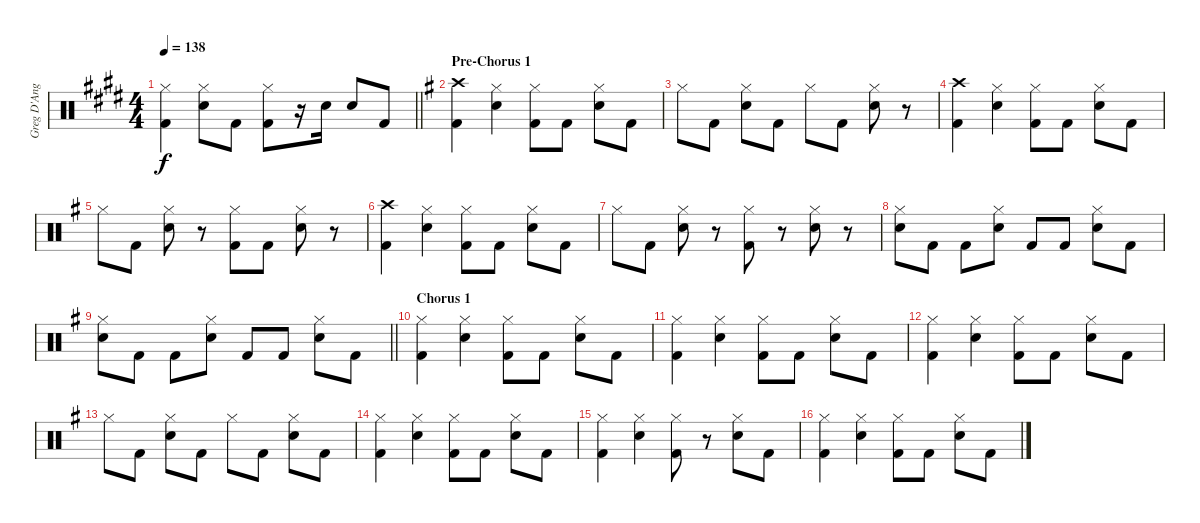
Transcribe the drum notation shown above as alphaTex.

\track ("Greg D'Angelo" "Greg D'Ang") {instrument percussion}
\staff {score}
\articulation defaults
\ts (4 4)
\tempo 138
\clef neutral
\barLineRight lightlight
\ks c#minor
("Hi-Hat (closed)" "Kick (hit) 2").4{dy f} ("Hi-Hat (closed)" "Snare (hit) 2").8 "Kick (hit) 2".8 ("Hi-Hat (closed)" "Kick (hit) 2").8 r.16 "Snare (hit) 2".16 "Snare (hit) 2".8 "Kick (hit) 2".8 |
\section ("" "Pre-Chorus 1")
\ks g
("Crash high (hit)" "Kick (hit) 2").4 ("Hi-Hat (closed)" "Snare (hit) 2").4 ("Hi-Hat (closed)" "Kick (hit) 2").8 "Kick (hit) 2".8 ("Hi-Hat (closed)" "Snare (hit) 2").8 "Kick (hit) 2".8 |
"Hi-Hat (closed)".8 "Kick (hit) 2".8 ("Hi-Hat (closed)" "Snare (hit) 2").8 "Kick (hit) 2".8 "Hi-Hat (closed)".8 "Kick (hit) 2".8 ("Hi-Hat (closed)" "Snare (hit) 2").8 r.8 |
("Crash high (hit)" "Kick (hit) 2").4 ("Hi-Hat (closed)" "Snare (hit) 2").4 ("Hi-Hat (closed)" "Kick (hit) 2").8 "Kick (hit) 2".8 ("Hi-Hat (closed)" "Snare (hit) 2").8 "Kick (hit) 2".8 |
"Hi-Hat (closed)".8 "Kick (hit) 2".8 ("Hi-Hat (closed)" "Snare (hit) 2").8 r.8 ("Hi-Hat (closed)" "Kick (hit) 2").8 "Kick (hit) 2".8 ("Hi-Hat (closed)" "Snare (hit) 2").8 r.8 |
("Crash high (hit)" "Kick (hit) 2").4 ("Hi-Hat (closed)" "Snare (hit) 2").4 ("Hi-Hat (closed)" "Kick (hit) 2").8 "Kick (hit) 2".8 ("Hi-Hat (closed)" "Snare (hit) 2").8 "Kick (hit) 2".8 |
"Hi-Hat (closed)".8 "Kick (hit) 2".8 ("Hi-Hat (closed)" "Snare (hit) 2").8 r.8 ("Hi-Hat (closed)" "Kick (hit) 2").8 r.8 ("Hi-Hat (closed)" "Snare (hit) 2").8 r.8 |
("Hi-Hat (closed)" "Snare (hit) 2").8 "Kick (hit) 2".8 "Kick (hit) 2".8 ("Hi-Hat (closed)" "Snare (hit) 2").8 "Kick (hit) 2".8 "Kick (hit) 2".8 ("Hi-Hat (closed)" "Snare (hit) 2").8 "Kick (hit) 2".8 |
\barLineRight lightlight
("Hi-Hat (closed)" "Snare (hit) 2").8 "Kick (hit) 2".8 "Kick (hit) 2".8 ("Hi-Hat (closed)" "Snare (hit) 2").8 "Kick (hit) 2".8 "Kick (hit) 2".8 ("Hi-Hat (closed)" "Snare (hit) 2").8 "Kick (hit) 2".8 |
\section ("" "Chorus 1")
("Hi-Hat (closed)" "Kick (hit) 2").4 ("Hi-Hat (closed)" "Snare (hit) 2").4 ("Hi-Hat (closed)" "Kick (hit) 2").8 "Kick (hit) 2".8 ("Hi-Hat (closed)" "Snare (hit) 2").8 "Kick (hit) 2".8 |
("Hi-Hat (closed)" "Kick (hit) 2").4 ("Hi-Hat (closed)" "Snare (hit) 2").4 ("Hi-Hat (closed)" "Kick (hit) 2").8 "Kick (hit) 2".8 ("Hi-Hat (closed)" "Snare (hit) 2").8 "Kick (hit) 2".8 |
("Hi-Hat (closed)" "Kick (hit) 2").4 ("Hi-Hat (closed)" "Snare (hit) 2").4 ("Hi-Hat (closed)" "Kick (hit) 2").8 "Kick (hit) 2".8 ("Hi-Hat (closed)" "Snare (hit) 2").8 "Kick (hit) 2".8 |
"Hi-Hat (closed)".8 "Kick (hit) 2".8 ("Hi-Hat (closed)" "Snare (hit) 2").8 "Kick (hit) 2".8 "Hi-Hat (closed)".8 "Kick (hit) 2".8 ("Hi-Hat (closed)" "Snare (hit) 2").8 "Kick (hit) 2".8 |
("Hi-Hat (closed)" "Kick (hit) 2").4 ("Hi-Hat (closed)" "Snare (hit) 2").4 ("Hi-Hat (closed)" "Kick (hit) 2").8 "Kick (hit) 2".8 ("Hi-Hat (closed)" "Snare (hit) 2").8 "Kick (hit) 2".8 |
("Hi-Hat (closed)" "Kick (hit) 2").4 ("Hi-Hat (closed)" "Snare (hit) 2").4 ("Hi-Hat (closed)" "Kick (hit) 2").8 r.8 ("Hi-Hat (closed)" "Snare (hit) 2").8 "Kick (hit) 2".8 |
("Hi-Hat (closed)" "Kick (hit) 2").4 ("Hi-Hat (closed)" "Snare (hit) 2").4 ("Hi-Hat (closed)" "Kick (hit) 2").8 "Kick (hit) 2".8 ("Hi-Hat (closed)" "Snare (hit) 2").8 "Kick (hit) 2".8
